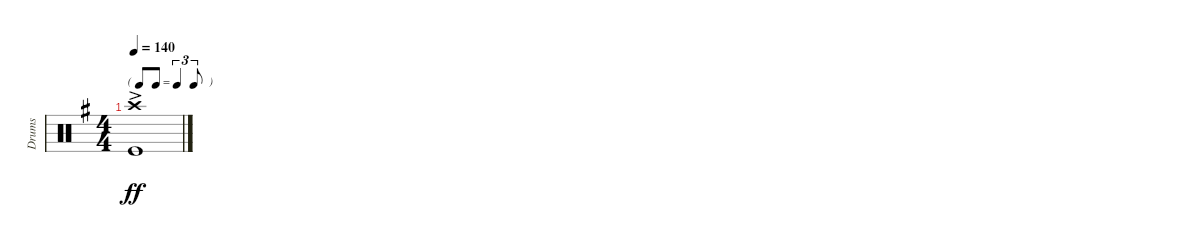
\track ("Drums" "Drums") {instrument percussion}
\staff {score}
\articulation defaults
\ts (4 4)
\tf triplet8th
\tempo 140
\clef neutral
\ks g
("Crash high (hit)"{ac} "Kick (hit)"{ac}).1{dy ff}
